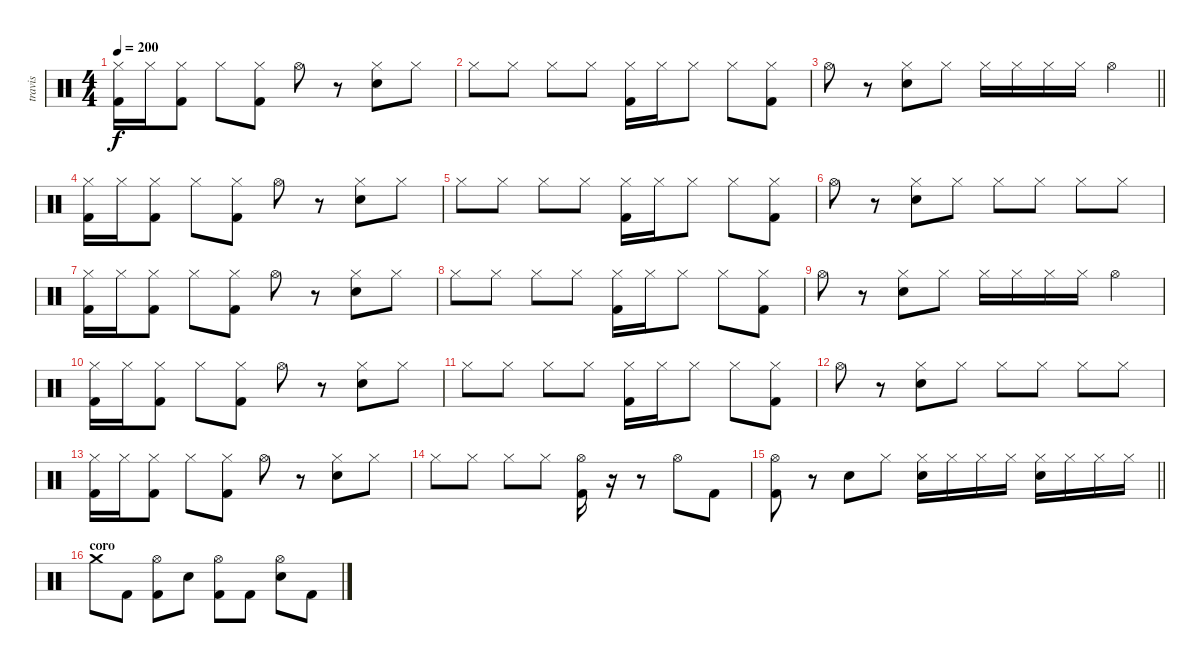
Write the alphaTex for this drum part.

\track ("travis" "travis") {instrument percussion}
\staff {score}
\articulation defaults
\ts (4 4)
\tempo 200
\clef neutral
\ks c
("Hi-Hat (closed)" "Kick (hit) 2").16{dy f} "Hi-Hat (closed)".16 ("Hi-Hat (closed)" "Kick (hit) 2").8 "Hi-Hat (closed)".8 ("Hi-Hat (closed)" "Kick (hit) 2").8 "Hi-Hat (open)".8 r.8 ("Hi-Hat (closed)" "Electric Snare (hit)").8 "Hi-Hat (closed)".8 |
"Hi-Hat (closed)".8 "Hi-Hat (closed)".8 "Hi-Hat (closed)".8 "Hi-Hat (closed)".8 ("Hi-Hat (closed)" "Kick (hit) 2").16 "Hi-Hat (closed)".16 "Hi-Hat (closed)".8 "Hi-Hat (closed)".8 ("Hi-Hat (closed)" "Kick (hit) 2").8 |
\barLineRight lightlight "Hi-Hat (open)".8
r.8 ("Hi-Hat (closed)" "Electric Snare (hit)").8 "Hi-Hat (closed)".8 "Hi-Hat (closed)".16 "Hi-Hat (closed)".16 "Hi-Hat (closed)".16 "Hi-Hat (closed)".16 "Hi-Hat (open)".4 |
("Hi-Hat (closed)" "Kick (hit) 2").16 "Hi-Hat (closed)".16 ("Hi-Hat (closed)" "Kick (hit) 2").8 "Hi-Hat (closed)".8 ("Hi-Hat (closed)" "Kick (hit) 2").8 "Hi-Hat (open)".8 r.8 ("Hi-Hat (closed)" "Electric Snare (hit)").8 "Hi-Hat (closed)".8 |
"Hi-Hat (closed)".8 "Hi-Hat (closed)".8 "Hi-Hat (closed)".8 "Hi-Hat (closed)".8 ("Hi-Hat (closed)" "Kick (hit) 2").16 "Hi-Hat (closed)".16 "Hi-Hat (closed)".8 "Hi-Hat (closed)".8 ("Hi-Hat (closed)" "Kick (hit) 2").8 |
"Hi-Hat (open)".8 r.8 ("Hi-Hat (closed)" "Electric Snare (hit)").8 "Hi-Hat (closed)".8 "Hi-Hat (closed)".8 "Hi-Hat (closed)".8 "Hi-Hat (closed)".8 "Hi-Hat (closed)".8 |
("Hi-Hat (closed)" "Kick (hit) 2").16 "Hi-Hat (closed)".16 ("Hi-Hat (closed)" "Kick (hit) 2").8 "Hi-Hat (closed)".8 ("Hi-Hat (closed)" "Kick (hit) 2").8 "Hi-Hat (open)".8 r.8 ("Hi-Hat (closed)" "Electric Snare (hit)").8 "Hi-Hat (closed)".8 |
"Hi-Hat (closed)".8 "Hi-Hat (closed)".8 "Hi-Hat (closed)".8 "Hi-Hat (closed)".8 ("Hi-Hat (closed)" "Kick (hit) 2").16 "Hi-Hat (closed)".16 "Hi-Hat (closed)".8 "Hi-Hat (closed)".8 ("Hi-Hat (closed)" "Kick (hit) 2").8 |
"Hi-Hat (open)".8 r.8 ("Hi-Hat (closed)" "Electric Snare (hit)").8 "Hi-Hat (closed)".8 "Hi-Hat (closed)".16 "Hi-Hat (closed)".16 "Hi-Hat (closed)".16 "Hi-Hat (closed)".16 "Hi-Hat (open)".4 |
("Hi-Hat (closed)" "Kick (hit) 2").16 "Hi-Hat (closed)".16 ("Hi-Hat (closed)" "Kick (hit) 2").8 "Hi-Hat (closed)".8 ("Hi-Hat (closed)" "Kick (hit) 2").8 "Hi-Hat (open)".8 r.8 ("Hi-Hat (closed)" "Electric Snare (hit)").8 "Hi-Hat (closed)".8 |
"Hi-Hat (closed)".8 "Hi-Hat (closed)".8 "Hi-Hat (closed)".8 "Hi-Hat (closed)".8 ("Hi-Hat (closed)" "Kick (hit) 2").16 "Hi-Hat (closed)".16 "Hi-Hat (closed)".8 "Hi-Hat (closed)".8 ("Hi-Hat (closed)" "Kick (hit) 2").8 |
"Hi-Hat (open)".8 r.8 ("Hi-Hat (closed)" "Electric Snare (hit)").8 "Hi-Hat (closed)".8 "Hi-Hat (closed)".8 "Hi-Hat (closed)".8 "Hi-Hat (closed)".8 "Hi-Hat (closed)".8 |
("Hi-Hat (closed)" "Kick (hit) 2").16 "Hi-Hat (closed)".16 ("Hi-Hat (closed)" "Kick (hit) 2").8 "Hi-Hat (closed)".8 ("Hi-Hat (closed)" "Kick (hit) 2").8 "Hi-Hat (open)".8 r.8 ("Hi-Hat (closed)" "Electric Snare (hit)").8 "Hi-Hat (closed)".8 |
"Hi-Hat (closed)".8 "Hi-Hat (closed)".8 "Hi-Hat (closed)".8 "Hi-Hat (closed)".8 ("Hi-Hat (open)" "Kick (hit) 2").16 r.16 r.8 "Hi-Hat (open)".8 "Kick (hit) 2".8 |
\barLineRight lightlight
("Hi-Hat (open)" "Kick (hit) 2").8 r.8 "Electric Snare (hit)".8 "Hi-Hat (closed)".8 ("Hi-Hat (closed)" "Electric Snare (hit)").16 "Hi-Hat (closed)".16 "Hi-Hat (closed)".16 "Hi-Hat (closed)".16 ("Hi-Hat (closed)" "Electric Snare (hit)").16 "Hi-Hat (closed)".16 "Hi-Hat (closed)".16 "Hi-Hat (closed)".16 |
\section ("" "coro")
"Crash medium (hit)".8 "Kick (hit) 2".8 ("Hi-Hat (open)" "Kick (hit) 2").8 "Electric Snare (hit)".8 ("Hi-Hat (open)" "Kick (hit) 2").8 "Kick (hit) 2".8 ("Hi-Hat (open)" "Electric Snare (hit)").8 "Kick (hit) 2".8
